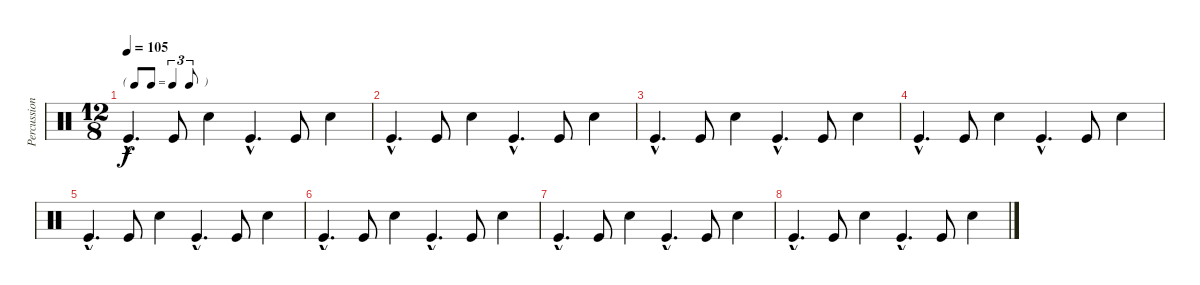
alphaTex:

\track ("Percussion" "Percussion") {instrument percussion}
\staff {score}
\articulation defaults
\ts (12 8)
\tf triplet8th
\tempo 105
\clef neutral
\ks c "Kick (hit)"{hac}.4{d dy f} "Kick (hit)".8 "Snare (hit) 2".4 "Kick (hit)"{hac}.4{d} "Kick (hit)".8 "Snare (hit) 2".4
|
"Kick (hit)"{hac}.4{d} "Kick (hit)".8 "Snare (hit) 2".4 "Kick (hit)"{hac}.4{d} "Kick (hit)".8 "Snare (hit) 2".4 |
"Kick (hit)"{hac}.4{d} "Kick (hit)".8 "Snare (hit) 2".4 "Kick (hit)"{hac}.4{d} "Kick (hit)".8 "Snare (hit) 2".4 |
"Kick (hit)"{hac}.4{d} "Kick (hit)".8 "Snare (hit) 2".4 "Kick (hit)"{hac}.4{d} "Kick (hit)".8 "Snare (hit) 2".4 |
"Kick (hit)"{hac}.4{d} "Kick (hit)".8 "Snare (hit) 2".4 "Kick (hit)"{hac}.4{d} "Kick (hit)".8 "Snare (hit) 2".4 |
"Kick (hit)"{hac}.4{d} "Kick (hit)".8 "Snare (hit) 2".4 "Kick (hit)"{hac}.4{d} "Kick (hit)".8 "Snare (hit) 2".4 |
"Kick (hit)"{hac}.4{d} "Kick (hit)".8 "Snare (hit) 2".4 "Kick (hit)"{hac}.4{d} "Kick (hit)".8 "Snare (hit) 2".4 |
"Kick (hit)"{hac}.4{d} "Kick (hit)".8 "Snare (hit) 2".4 "Kick (hit)"{hac}.4{d} "Kick (hit)".8 "Snare (hit) 2".4
